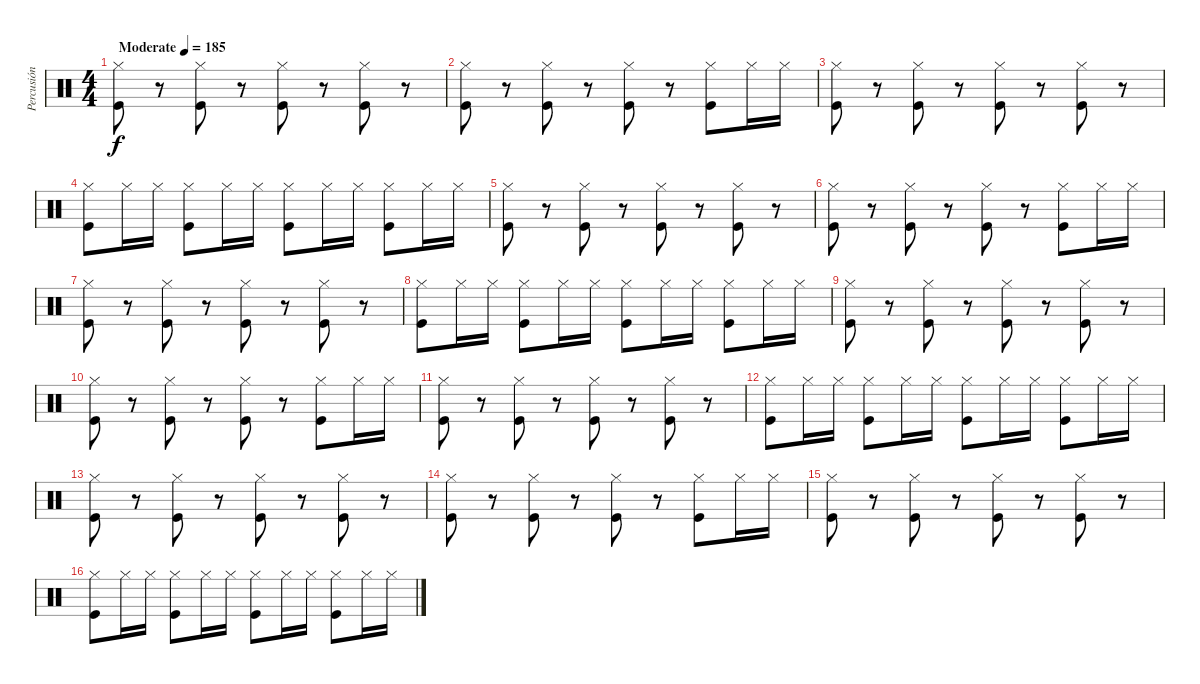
\track ("Percusión" "Percusión") {instrument percussion}
\staff {score}
\articulation defaults
\ts (4 4)
\tempo (185 "Moderate")
\clef neutral
\ks c
("Hi-Hat (closed)" "Kick (hit)").8{dy f} r.8 ("Hi-Hat (closed)" "Kick (hit)").8 r.8 ("Hi-Hat (closed)" "Kick (hit)").8 r.8 ("Hi-Hat (closed)" "Kick (hit)").8 r.8 |
("Hi-Hat (closed)" "Kick (hit)").8 r.8 ("Hi-Hat (closed)" "Kick (hit)").8 r.8 ("Hi-Hat (closed)" "Kick (hit)").8 r.8 ("Hi-Hat (closed)" "Kick (hit)").8 "Hi-Hat (closed)".16 "Hi-Hat (closed)".16 |
("Hi-Hat (closed)" "Kick (hit)").8 r.8 ("Hi-Hat (closed)" "Kick (hit)").8 r.8 ("Hi-Hat (closed)" "Kick (hit)").8 r.8 ("Hi-Hat (closed)" "Kick (hit)").8 r.8 |
("Hi-Hat (closed)" "Kick (hit)").8 "Hi-Hat (closed)".16 "Hi-Hat (closed)".16 ("Hi-Hat (closed)" "Kick (hit)").8 "Hi-Hat (closed)".16 "Hi-Hat (closed)".16 ("Hi-Hat (closed)" "Kick (hit)").8 "Hi-Hat (closed)".16 "Hi-Hat (closed)".16 ("Hi-Hat (closed)" "Kick (hit)").8 "Hi-Hat (closed)".16 "Hi-Hat (closed)".16 |
("Hi-Hat (closed)" "Kick (hit)").8 r.8 ("Hi-Hat (closed)" "Kick (hit)").8 r.8 ("Hi-Hat (closed)" "Kick (hit)").8 r.8 ("Hi-Hat (closed)" "Kick (hit)").8 r.8 |
("Hi-Hat (closed)" "Kick (hit)").8 r.8 ("Hi-Hat (closed)" "Kick (hit)").8 r.8 ("Hi-Hat (closed)" "Kick (hit)").8 r.8 ("Hi-Hat (closed)" "Kick (hit)").8 "Hi-Hat (closed)".16 "Hi-Hat (closed)".16 |
("Hi-Hat (closed)" "Kick (hit)").8 r.8 ("Hi-Hat (closed)" "Kick (hit)").8 r.8 ("Hi-Hat (closed)" "Kick (hit)").8 r.8 ("Hi-Hat (closed)" "Kick (hit)").8 r.8 |
("Hi-Hat (closed)" "Kick (hit)").8 "Hi-Hat (closed)".16 "Hi-Hat (closed)".16 ("Hi-Hat (closed)" "Kick (hit)").8 "Hi-Hat (closed)".16 "Hi-Hat (closed)".16 ("Hi-Hat (closed)" "Kick (hit)").8 "Hi-Hat (closed)".16 "Hi-Hat (closed)".16 ("Hi-Hat (closed)" "Kick (hit)").8 "Hi-Hat (closed)".16 "Hi-Hat (closed)".16 |
("Hi-Hat (closed)" "Kick (hit)").8 r.8 ("Hi-Hat (closed)" "Kick (hit)").8 r.8 ("Hi-Hat (closed)" "Kick (hit)").8 r.8 ("Hi-Hat (closed)" "Kick (hit)").8 r.8 |
("Hi-Hat (closed)" "Kick (hit)").8 r.8 ("Hi-Hat (closed)" "Kick (hit)").8 r.8 ("Hi-Hat (closed)" "Kick (hit)").8 r.8 ("Hi-Hat (closed)" "Kick (hit)").8 "Hi-Hat (closed)".16 "Hi-Hat (closed)".16 |
("Hi-Hat (closed)" "Kick (hit)").8 r.8 ("Hi-Hat (closed)" "Kick (hit)").8 r.8 ("Hi-Hat (closed)" "Kick (hit)").8 r.8 ("Hi-Hat (closed)" "Kick (hit)").8 r.8 |
("Hi-Hat (closed)" "Kick (hit)").8 "Hi-Hat (closed)".16 "Hi-Hat (closed)".16 ("Hi-Hat (closed)" "Kick (hit)").8 "Hi-Hat (closed)".16 "Hi-Hat (closed)".16 ("Hi-Hat (closed)" "Kick (hit)").8 "Hi-Hat (closed)".16 "Hi-Hat (closed)".16 ("Hi-Hat (closed)" "Kick (hit)").8 "Hi-Hat (closed)".16 "Hi-Hat (closed)".16 |
("Hi-Hat (closed)" "Kick (hit)").8 r.8 ("Hi-Hat (closed)" "Kick (hit)").8 r.8 ("Hi-Hat (closed)" "Kick (hit)").8 r.8 ("Hi-Hat (closed)" "Kick (hit)").8 r.8 |
("Hi-Hat (closed)" "Kick (hit)").8 r.8 ("Hi-Hat (closed)" "Kick (hit)").8 r.8 ("Hi-Hat (closed)" "Kick (hit)").8 r.8 ("Hi-Hat (closed)" "Kick (hit)").8 "Hi-Hat (closed)".16 "Hi-Hat (closed)".16 |
("Hi-Hat (closed)" "Kick (hit)").8 r.8 ("Hi-Hat (closed)" "Kick (hit)").8 r.8 ("Hi-Hat (closed)" "Kick (hit)").8 r.8 ("Hi-Hat (closed)" "Kick (hit)").8 r.8 |
("Hi-Hat (closed)" "Kick (hit)").8 "Hi-Hat (closed)".16 "Hi-Hat (closed)".16 ("Hi-Hat (closed)" "Kick (hit)").8 "Hi-Hat (closed)".16 "Hi-Hat (closed)".16 ("Hi-Hat (closed)" "Kick (hit)").8 "Hi-Hat (closed)".16 "Hi-Hat (closed)".16 ("Hi-Hat (closed)" "Kick (hit)").8 "Hi-Hat (closed)".16 "Hi-Hat (closed)".16
